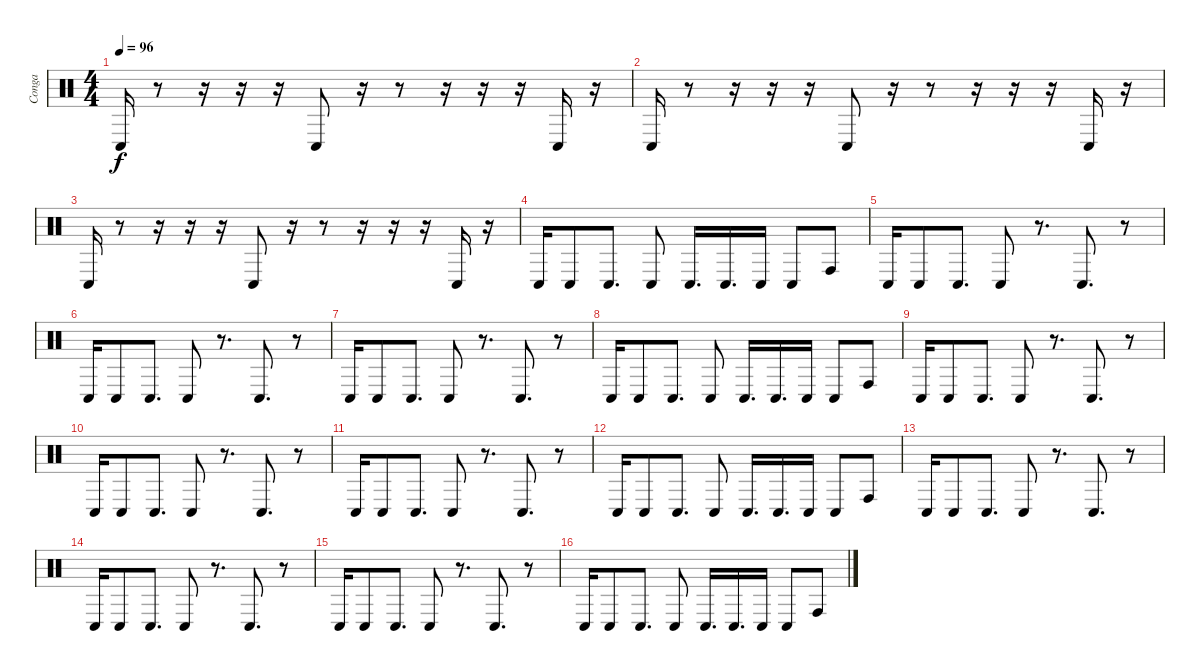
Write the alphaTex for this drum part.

\track ("Conga" "Conga") {instrument percussion}
\staff {score}
\articulation defaults
\ts (4 4)
\tempo 96
\clef neutral
\ks c "Conga low (hit)".16{dy f}
r.8 r.16 r.16 r.16 "Conga low (hit)".8 r.16 r.8 r.16 r.16 r.16 "Conga low (hit)".16 r.16 |
"Conga low (hit)".16 r.8 r.16 r.16 r.16 "Conga low (hit)".8 r.16 r.8 r.16 r.16 r.16 "Conga low (hit)".16 r.16 |
"Conga low (hit)".16 r.8 r.16 r.16 r.16 "Conga low (hit)".8 r.16 r.8 r.16 r.16 r.16 "Conga low (hit)".16 r.16 |
"Conga low (hit)".16 "Conga low (hit)".8 "Conga low (hit)".8{d} "Conga low (hit)".8 "Conga low (hit)".16{d} "Conga low (hit)".16{d} "Conga low (hit)".16 "Conga low (hit)".8 "Conga high (hit)".8 |
"Conga low (hit)".16 "Conga low (hit)".8 "Conga low (hit)".8{d} "Conga low (hit)".8 r.8{d} "Conga low (hit)".8{d} r.8 |
"Conga low (hit)".16 "Conga low (hit)".8 "Conga low (hit)".8{d} "Conga low (hit)".8 r.8{d} "Conga low (hit)".8{d} r.8 |
"Conga low (hit)".16 "Conga low (hit)".8 "Conga low (hit)".8{d} "Conga low (hit)".8 r.8{d} "Conga low (hit)".8{d} r.8 |
"Conga low (hit)".16 "Conga low (hit)".8 "Conga low (hit)".8{d} "Conga low (hit)".8 "Conga low (hit)".16{d} "Conga low (hit)".16{d} "Conga low (hit)".16 "Conga low (hit)".8 "Conga high (hit)".8 |
"Conga low (hit)".16 "Conga low (hit)".8 "Conga low (hit)".8{d} "Conga low (hit)".8 r.8{d} "Conga low (hit)".8{d} r.8 |
"Conga low (hit)".16 "Conga low (hit)".8 "Conga low (hit)".8{d} "Conga low (hit)".8 r.8{d} "Conga low (hit)".8{d} r.8 |
"Conga low (hit)".16 "Conga low (hit)".8 "Conga low (hit)".8{d} "Conga low (hit)".8 r.8{d} "Conga low (hit)".8{d} r.8 |
"Conga low (hit)".16 "Conga low (hit)".8 "Conga low (hit)".8{d} "Conga low (hit)".8 "Conga low (hit)".16{d} "Conga low (hit)".16{d} "Conga low (hit)".16 "Conga low (hit)".8 "Conga high (hit)".8 |
"Conga low (hit)".16 "Conga low (hit)".8 "Conga low (hit)".8{d} "Conga low (hit)".8 r.8{d} "Conga low (hit)".8{d} r.8 |
"Conga low (hit)".16 "Conga low (hit)".8 "Conga low (hit)".8{d} "Conga low (hit)".8 r.8{d} "Conga low (hit)".8{d} r.8 |
"Conga low (hit)".16 "Conga low (hit)".8 "Conga low (hit)".8{d} "Conga low (hit)".8 r.8{d} "Conga low (hit)".8{d} r.8 |
"Conga low (hit)".16 "Conga low (hit)".8 "Conga low (hit)".8{d} "Conga low (hit)".8 "Conga low (hit)".16{d} "Conga low (hit)".16{d} "Conga low (hit)".16 "Conga low (hit)".8 "Conga high (hit)".8
